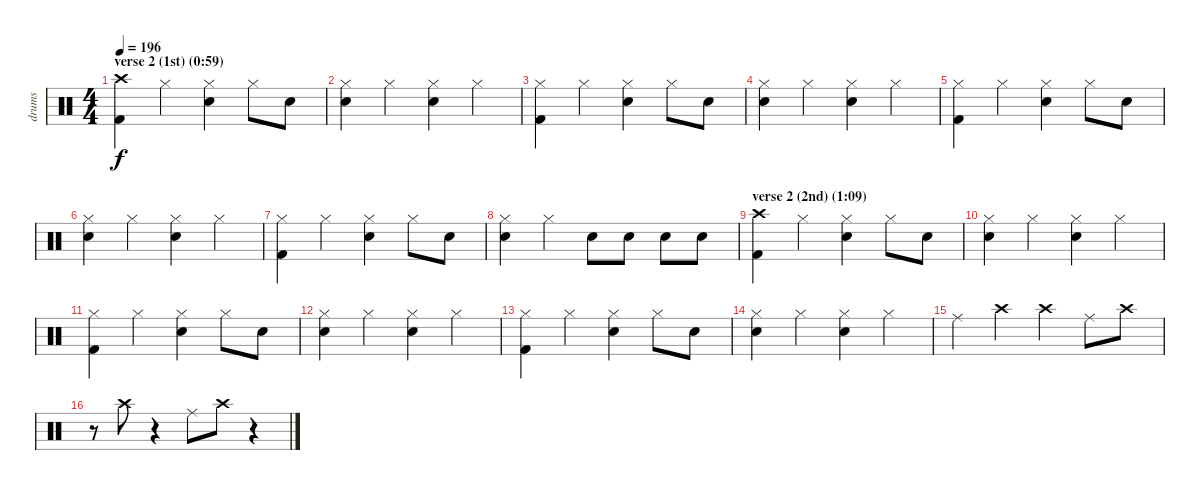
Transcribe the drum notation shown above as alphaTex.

\track ("drums" "drums") {instrument percussion}
\staff {score}
\articulation defaults
\ts (4 4)
\section ("" "verse 2 (1st) (0:59)")
\tempo 196
\clef neutral
\ks c
("Crash high (hit)" "Kick (hit) 2").4{dy f} "Hi-Hat (closed)".4 ("Hi-Hat (closed)" "Snare (hit) 2").4 "Hi-Hat (closed)".8 "Snare (hit) 2".8 |
("Hi-Hat (closed)" "Snare (hit) 2").4 "Hi-Hat (closed)".4 ("Hi-Hat (closed)" "Snare (hit) 2").4 "Hi-Hat (closed)".4 |
("Hi-Hat (closed)" "Kick (hit) 2").4 "Hi-Hat (closed)".4 ("Hi-Hat (closed)" "Snare (hit) 2").4 "Hi-Hat (closed)".8 "Snare (hit) 2".8 |
("Hi-Hat (closed)" "Snare (hit) 2").4 "Hi-Hat (closed)".4 ("Hi-Hat (closed)" "Snare (hit) 2").4 "Hi-Hat (closed)".4 |
("Hi-Hat (closed)" "Kick (hit) 2").4 "Hi-Hat (closed)".4 ("Hi-Hat (closed)" "Snare (hit) 2").4 "Hi-Hat (closed)".8 "Snare (hit) 2".8 |
("Hi-Hat (closed)" "Snare (hit) 2").4 "Hi-Hat (closed)".4 ("Hi-Hat (closed)" "Snare (hit) 2").4 "Hi-Hat (closed)".4 |
("Hi-Hat (closed)" "Kick (hit) 2").4 "Hi-Hat (closed)".4 ("Hi-Hat (closed)" "Snare (hit) 2").4 "Hi-Hat (closed)".8 "Snare (hit) 2".8 |
("Hi-Hat (closed)" "Snare (hit) 2").4 "Hi-Hat (closed)".4 "Snare (hit) 2".8 "Snare (hit) 2".8 "Snare (hit) 2".8 "Snare (hit) 2".8 |
\section ("" "verse 2 (2nd) (1:09)")
("Crash high (hit)" "Kick (hit) 2").4 "Hi-Hat (closed)".4 ("Hi-Hat (closed)" "Snare (hit) 2").4 "Hi-Hat (closed)".8 "Snare (hit) 2".8 |
("Hi-Hat (closed)" "Snare (hit) 2").4 "Hi-Hat (closed)".4 ("Hi-Hat (closed)" "Snare (hit) 2").4 "Hi-Hat (closed)".4 |
("Hi-Hat (closed)" "Kick (hit) 2").4 "Hi-Hat (closed)".4 ("Hi-Hat (closed)" "Snare (hit) 2").4 "Hi-Hat (closed)".8 "Snare (hit) 2".8 |
("Hi-Hat (closed)" "Snare (hit) 2").4 "Hi-Hat (closed)".4 ("Hi-Hat (closed)" "Snare (hit) 2").4 "Hi-Hat (closed)".4 |
("Hi-Hat (closed)" "Kick (hit) 2").4 "Hi-Hat (closed)".4 ("Hi-Hat (closed)" "Snare (hit) 2").4 "Hi-Hat (closed)".8 "Snare (hit) 2".8 |
("Hi-Hat (closed)" "Snare (hit) 2").4 "Hi-Hat (closed)".4 ("Hi-Hat (closed)" "Snare (hit) 2").4 "Hi-Hat (closed)".4 |
"Ride (middle)".4 "Crash high (hit)".4 "Crash high (hit)".4 "Ride (middle)".8 "Crash high (hit)".8 |
r.8 "Crash high (hit)".8 r.4 "Ride (middle)".8 "Crash high (hit)".8 r.4
